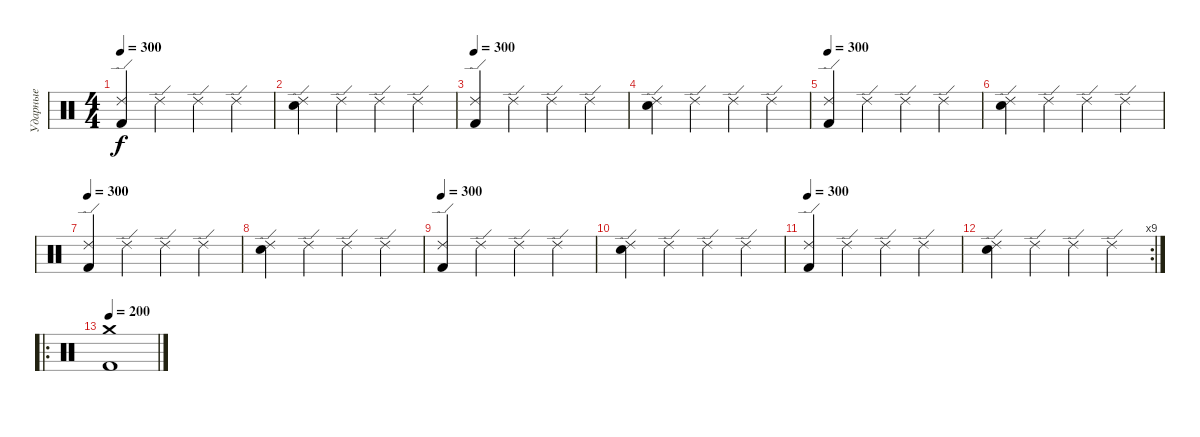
\track ("Ударные" "Ударные") {instrument percussion}
\staff {score}
\articulation defaults
\ts (4 4)
\tempo 300
\clef neutral
\ks c
("Ride (edge) 2" "Kick (hit) 2").4{dy f} "Ride (edge) 2".4 "Ride (edge) 2".4 "Ride (edge) 2".4 |
("Ride (edge) 2" "Snare (hit) 2").4 "Ride (edge) 2".4 "Ride (edge) 2".4 "Ride (edge) 2".4 |
\tempo 300
("Ride (edge) 2" "Kick (hit) 2").4 "Ride (edge) 2".4 "Ride (edge) 2".4 "Ride (edge) 2".4 |
("Ride (edge) 2" "Snare (hit) 2").4 "Ride (edge) 2".4 "Ride (edge) 2".4 "Ride (edge) 2".4 |
\tempo 300
("Ride (edge) 2" "Kick (hit) 2").4 "Ride (edge) 2".4 "Ride (edge) 2".4 "Ride (edge) 2".4 |
("Ride (edge) 2" "Snare (hit) 2").4 "Ride (edge) 2".4 "Ride (edge) 2".4 "Ride (edge) 2".4 |
\tempo 300
("Ride (edge) 2" "Kick (hit) 2").4 "Ride (edge) 2".4 "Ride (edge) 2".4 "Ride (edge) 2".4 |
("Ride (edge) 2" "Snare (hit) 2").4 "Ride (edge) 2".4 "Ride (edge) 2".4 "Ride (edge) 2".4 |
\tempo 300
("Ride (edge) 2" "Kick (hit) 2").4 "Ride (edge) 2".4 "Ride (edge) 2".4 "Ride (edge) 2".4 |
("Ride (edge) 2" "Snare (hit) 2").4 "Ride (edge) 2".4 "Ride (edge) 2".4 "Ride (edge) 2".4 |
\tempo 300
("Ride (edge) 2" "Kick (hit) 2").4 "Ride (edge) 2".4 "Ride (edge) 2".4 "Ride (edge) 2".4 |
\rc 9
("Ride (edge) 2" "Snare (hit) 2").4 "Ride (edge) 2".4 "Ride (edge) 2".4 "Ride (edge) 2".4 |
\ro
\tempo 200
("Crash medium (hit)" "Kick (hit) 2").1
